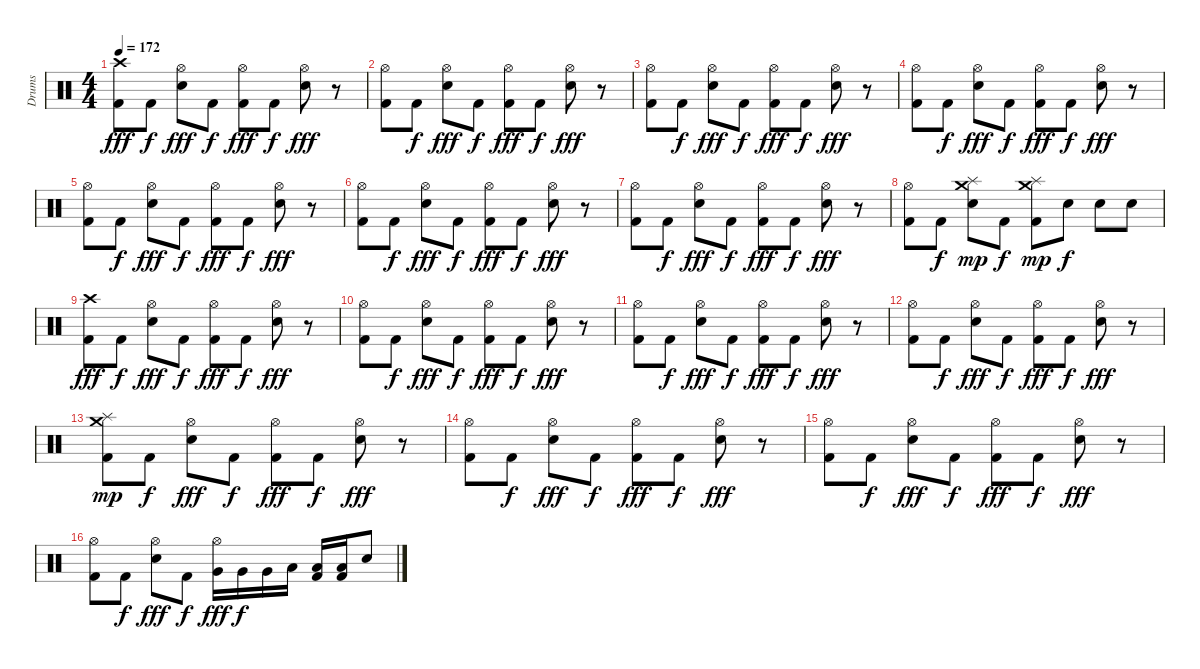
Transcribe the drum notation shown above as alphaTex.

\track ("Drums" "Drums") {instrument percussion}
\staff {score}
\articulation defaults
\ts (4 4)
\tempo 172
\clef neutral
\ks c
("Kick (hit) 2" "Crash high (hit)").8{dy fff} "Kick (hit) 2".8{dy f} ("Electric Snare (hit)" "Hi-Hat (open)").8{dy fff} "Kick (hit) 2".8{dy f} ("Kick (hit) 2" "Hi-Hat (open)").8{dy fff} "Kick (hit) 2".8{dy f} ("Electric Snare (hit)" "Hi-Hat (open)").8{dy fff} r.8 |
("Kick (hit) 2" "Hi-Hat (open)").8 "Kick (hit) 2".8{dy f} ("Electric Snare (hit)" "Hi-Hat (open)").8{dy fff} "Kick (hit) 2".8{dy f} ("Kick (hit) 2" "Hi-Hat (open)").8{dy fff} "Kick (hit) 2".8{dy f} ("Electric Snare (hit)" "Hi-Hat (open)").8{dy fff} r.8 |
("Kick (hit) 2" "Hi-Hat (open)").8 "Kick (hit) 2".8{dy f} ("Electric Snare (hit)" "Hi-Hat (open)").8{dy fff} "Kick (hit) 2".8{dy f} ("Kick (hit) 2" "Hi-Hat (open)").8{dy fff} "Kick (hit) 2".8{dy f} ("Electric Snare (hit)" "Hi-Hat (open)").8{dy fff} r.8 |
("Kick (hit) 2" "Hi-Hat (open)").8 "Kick (hit) 2".8{dy f} ("Electric Snare (hit)" "Hi-Hat (open)").8{dy fff} "Kick (hit) 2".8{dy f} ("Kick (hit) 2" "Hi-Hat (open)").8{dy fff} "Kick (hit) 2".8{dy f} ("Electric Snare (hit)" "Hi-Hat (open)").8{dy fff} r.8 |
("Kick (hit) 2" "Hi-Hat (open)").8 "Kick (hit) 2".8{dy f} ("Electric Snare (hit)" "Hi-Hat (open)").8{dy fff} "Kick (hit) 2".8{dy f} ("Kick (hit) 2" "Hi-Hat (open)").8{dy fff} "Kick (hit) 2".8{dy f} ("Electric Snare (hit)" "Hi-Hat (open)").8{dy fff} r.8 |
("Kick (hit) 2" "Hi-Hat (open)").8 "Kick (hit) 2".8{dy f} ("Electric Snare (hit)" "Hi-Hat (open)").8{dy fff} "Kick (hit) 2".8{dy f} ("Kick (hit) 2" "Hi-Hat (open)").8{dy fff} "Kick (hit) 2".8{dy f} ("Electric Snare (hit)" "Hi-Hat (open)").8{dy fff} r.8 |
("Kick (hit) 2" "Hi-Hat (open)").8 "Kick (hit) 2".8{dy f} ("Electric Snare (hit)" "Hi-Hat (open)").8{dy fff} "Kick (hit) 2".8{dy f} ("Kick (hit) 2" "Hi-Hat (open)").8{dy fff} "Kick (hit) 2".8{dy f} ("Electric Snare (hit)" "Hi-Hat (open)").8{dy fff} r.8 |
("Kick (hit) 2" "Hi-Hat (open)").8 "Kick (hit) 2".8{dy f} ("Electric Snare (hit)" "Splash (hit)" "Crash medium (hit)").8{dy mp} "Kick (hit) 2".8{dy f} ("Kick (hit) 2" "Splash (hit)" "Crash medium (hit)").8{dy mp} "Electric Snare (hit)".8{dy f} "Electric Snare (hit)".8 "Electric Snare (hit)".8 |
("Kick (hit) 2" "Crash high (hit)").8{dy fff} "Kick (hit) 2".8{dy f} ("Electric Snare (hit)" "Hi-Hat (open)").8{dy fff} "Kick (hit) 2".8{dy f} ("Kick (hit) 2" "Hi-Hat (open)").8{dy fff} "Kick (hit) 2".8{dy f} ("Electric Snare (hit)" "Hi-Hat (open)").8{dy fff} r.8 |
("Kick (hit) 2" "Hi-Hat (open)").8 "Kick (hit) 2".8{dy f} ("Electric Snare (hit)" "Hi-Hat (open)").8{dy fff} "Kick (hit) 2".8{dy f} ("Kick (hit) 2" "Hi-Hat (open)").8{dy fff} "Kick (hit) 2".8{dy f} ("Electric Snare (hit)" "Hi-Hat (open)").8{dy fff} r.8 |
("Kick (hit) 2" "Hi-Hat (open)").8 "Kick (hit) 2".8{dy f} ("Electric Snare (hit)" "Hi-Hat (open)").8{dy fff} "Kick (hit) 2".8{dy f} ("Kick (hit) 2" "Hi-Hat (open)").8{dy fff} "Kick (hit) 2".8{dy f} ("Electric Snare (hit)" "Hi-Hat (open)").8{dy fff} r.8 |
("Kick (hit) 2" "Hi-Hat (open)").8 "Kick (hit) 2".8{dy f} ("Electric Snare (hit)" "Hi-Hat (open)").8{dy fff} "Kick (hit) 2".8{dy f} ("Kick (hit) 2" "Hi-Hat (open)").8{dy fff} "Kick (hit) 2".8{dy f} ("Electric Snare (hit)" "Hi-Hat (open)").8{dy fff} r.8 |
("Kick (hit) 2" "Splash (hit)" "Crash medium (hit)").8{dy mp} "Kick (hit) 2".8{dy f} ("Electric Snare (hit)" "Hi-Hat (open)").8{dy fff} "Kick (hit) 2".8{dy f} ("Kick (hit) 2" "Hi-Hat (open)").8{dy fff} "Kick (hit) 2".8{dy f} ("Electric Snare (hit)" "Hi-Hat (open)").8{dy fff} r.8 |
("Kick (hit) 2" "Hi-Hat (open)").8 "Kick (hit) 2".8{dy f} ("Electric Snare (hit)" "Hi-Hat (open)").8{dy fff} "Kick (hit) 2".8{dy f} ("Kick (hit) 2" "Hi-Hat (open)").8{dy fff} "Kick (hit) 2".8{dy f} ("Electric Snare (hit)" "Hi-Hat (open)").8{dy fff} r.8 |
("Kick (hit) 2" "Hi-Hat (open)").8 "Kick (hit) 2".8{dy f} ("Electric Snare (hit)" "Hi-Hat (open)").8{dy fff} "Kick (hit) 2".8{dy f} ("Kick (hit) 2" "Hi-Hat (open)").8{dy fff} "Kick (hit) 2".8{dy f} ("Electric Snare (hit)" "Hi-Hat (open)").8{dy fff} r.8 |
("Kick (hit) 2" "Hi-Hat (open)").8 "Kick (hit) 2".8{dy f} ("Electric Snare (hit)" "Hi-Hat (open)").8{dy fff} "Kick (hit) 2".8{dy f} ("Very Low Tom (hit)" "Hi-Hat (open)").16{dy fff} "Very Low Tom (hit)".16{dy f} "Very Low Tom (hit)".16 "Low Tom (hit)".16 ("Kick (hit) 2" "Low Tom (hit)").16 ("Kick (hit) 2" "Low Tom (hit)").16 "Snare (hit) 2".8
